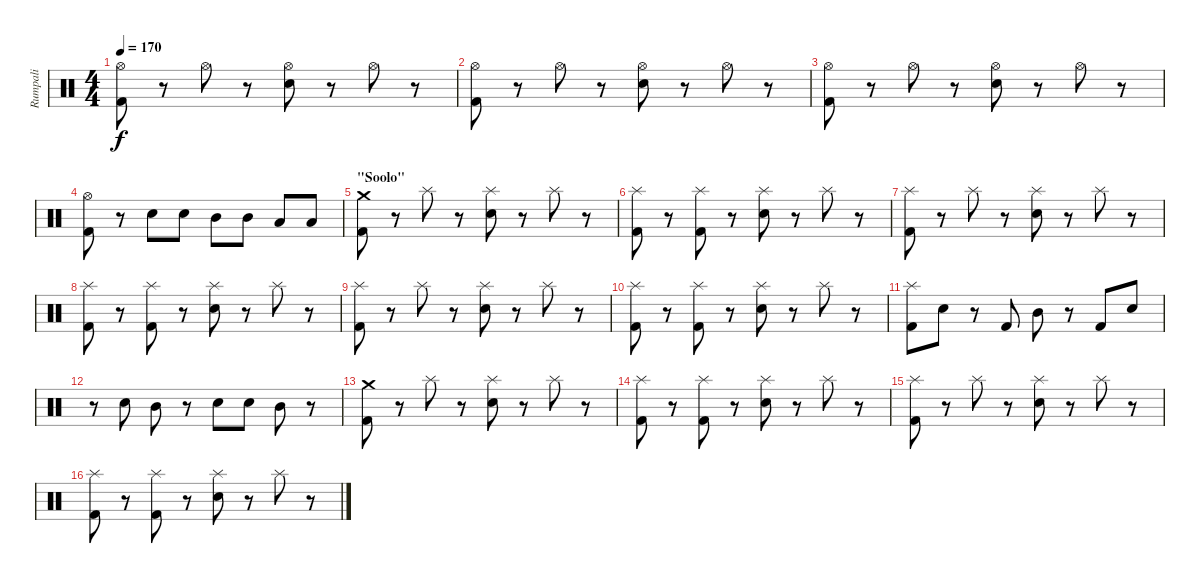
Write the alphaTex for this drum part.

\track ("Rumpali" "Rumpali") {instrument percussion}
\staff {score}
\articulation defaults
\ts (4 4)
\tempo 170
\clef neutral
\ks c
("Hi-Hat (open)" "Kick (hit) 2").8{dy f} r.8 "Hi-Hat (open)".8 r.8 ("Hi-Hat (open)" "Electric Snare (hit)").8 r.8 "Hi-Hat (open)".8 r.8 |
("Hi-Hat (open)" "Kick (hit) 2").8 r.8 "Hi-Hat (open)".8 r.8 ("Hi-Hat (open)" "Electric Snare (hit)").8 r.8 "Hi-Hat (open)".8 r.8 |
("Hi-Hat (open)" "Kick (hit) 2").8 r.8 "Hi-Hat (open)".8 r.8 ("Hi-Hat (open)" "Electric Snare (hit)").8 r.8 "Hi-Hat (open)".8 r.8 |
("Hi-Hat (open)" "Kick (hit) 2").8 r.8 "Electric Snare (hit)".8 "Electric Snare (hit)".8 "Mid Tom (hit)".8 "Mid Tom (hit)".8 "Low Tom (hit)".8 "Low Tom (hit)".8 |
\section ("" "\"Soolo\"")
("Crash medium (hit)" "Kick (hit) 2").8 r.8 "Splash (hit)".8 r.8 ("Splash (hit)" "Electric Snare (hit)").8 r.8 "Splash (hit)".8 r.8 |
("Splash (hit)" "Kick (hit) 2").8 r.8 ("Splash (hit)" "Kick (hit) 2").8 r.8 ("Splash (hit)" "Electric Snare (hit)").8 r.8 "Splash (hit)".8 r.8 |
("Splash (hit)" "Kick (hit) 2").8 r.8 "Splash (hit)".8 r.8 ("Splash (hit)" "Electric Snare (hit)").8 r.8 "Splash (hit)".8 r.8 |
("Splash (hit)" "Kick (hit) 2").8 r.8 ("Splash (hit)" "Kick (hit) 2").8 r.8 ("Splash (hit)" "Electric Snare (hit)").8 r.8 "Splash (hit)".8 r.8 |
("Splash (hit)" "Kick (hit) 2").8 r.8 "Splash (hit)".8 r.8 ("Splash (hit)" "Electric Snare (hit)").8 r.8 "Splash (hit)".8 r.8 |
("Splash (hit)" "Kick (hit) 2").8 r.8 ("Splash (hit)" "Kick (hit) 2").8 r.8 ("Splash (hit)" "Electric Snare (hit)").8 r.8 "Splash (hit)".8 r.8 |
("Splash (hit)" "Kick (hit) 2").8 "Electric Snare (hit)".8 r.8 "Kick (hit) 2".8 "Mid Tom (hit)".8 r.8 "Kick (hit) 2".8 "Electric Snare (hit)".8 |
r.8 "Electric Snare (hit)".8 "Mid Tom (hit)".8 r.8 "Electric Snare (hit)".8 "Electric Snare (hit)".8 "Mid Tom (hit)".8 r.8 |
("Crash medium (hit)" "Kick (hit) 2").8 r.8 "Splash (hit)".8 r.8 ("Splash (hit)" "Electric Snare (hit)").8 r.8 "Splash (hit)".8 r.8 |
("Splash (hit)" "Kick (hit) 2").8 r.8 ("Splash (hit)" "Kick (hit) 2").8 r.8 ("Splash (hit)" "Electric Snare (hit)").8 r.8 "Splash (hit)".8 r.8 |
("Splash (hit)" "Kick (hit) 2").8 r.8 "Splash (hit)".8 r.8 ("Splash (hit)" "Electric Snare (hit)").8 r.8 "Splash (hit)".8 r.8 |
("Splash (hit)" "Kick (hit) 2").8 r.8 ("Splash (hit)" "Kick (hit) 2").8 r.8 ("Splash (hit)" "Electric Snare (hit)").8 r.8 "Splash (hit)".8 r.8
